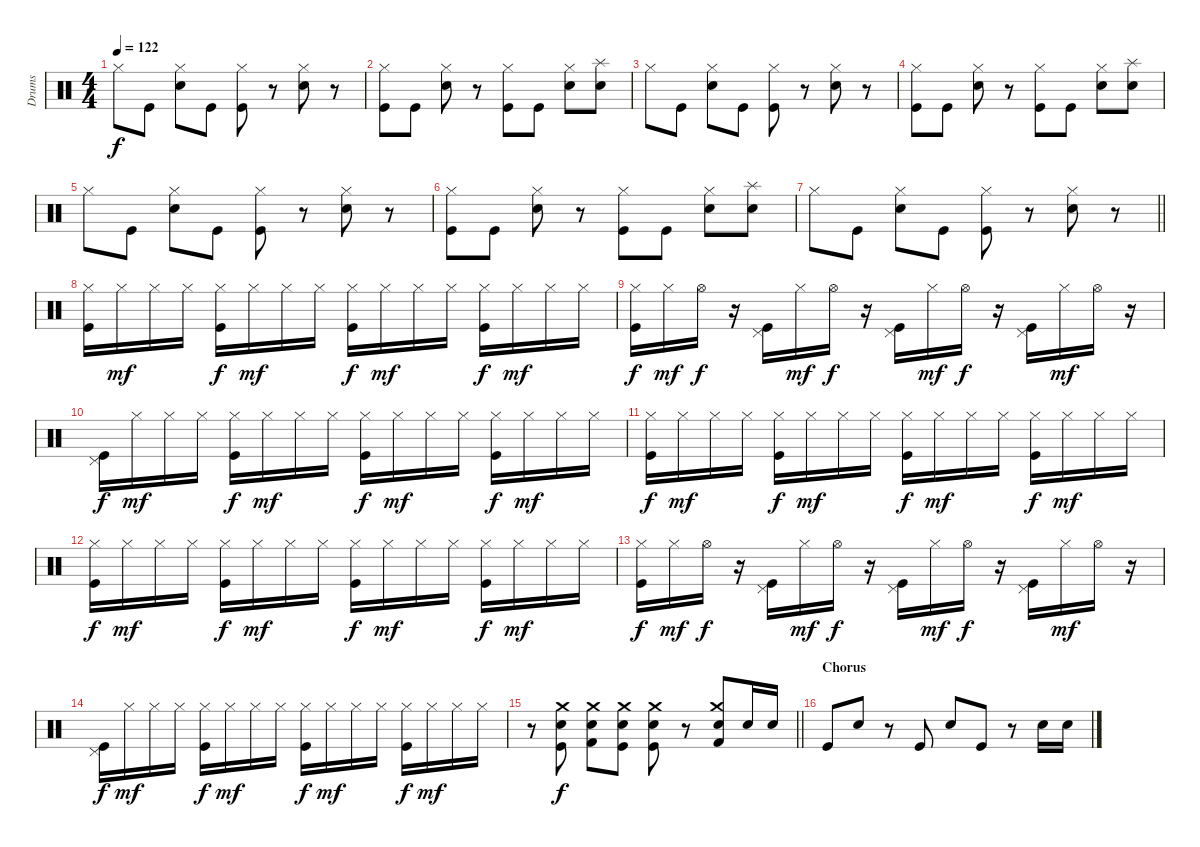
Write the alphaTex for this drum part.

\track ("Drums" "Drums") {instrument percussion}
\staff {score}
\articulation defaults
\ts (4 4)
\tempo 122
\clef neutral
\ks c "Hi-Hat (closed)".8{dy f} "Kick (hit)".8
("Hi-Hat (closed)" "Snare (hit) 2").8 "Kick (hit)".8 ("Hi-Hat (closed)" "Kick (hit)").8 r.8 ("Hi-Hat (closed)" "Snare (hit) 2").8 r.8 |
("Hi-Hat (closed)" "Kick (hit)").8 "Kick (hit)".8 ("Hi-Hat (closed)" "Snare (hit) 2").8 r.8 ("Hi-Hat (closed)" "Kick (hit)").8 "Kick (hit)".8 ("Hi-Hat (closed)" "Hand Clap (hit)").8 ("Splash (hit)" "Electric Snare (hit)").8 |
"Hi-Hat (closed)".8 "Kick (hit)".8 ("Hi-Hat (closed)" "Snare (hit) 2").8 "Kick (hit)".8 ("Hi-Hat (closed)" "Kick (hit)").8 r.8 ("Hi-Hat (closed)" "Snare (hit) 2").8 r.8 |
("Hi-Hat (closed)" "Kick (hit)").8 "Kick (hit)".8 ("Hi-Hat (closed)" "Snare (hit) 2").8 r.8 ("Hi-Hat (closed)" "Kick (hit)").8 "Kick (hit)".8 ("Hi-Hat (closed)" "Hand Clap (hit)").8 ("Splash (hit)" "Electric Snare (hit)").8 |
"Hi-Hat (closed)".8 "Kick (hit)".8 ("Hi-Hat (closed)" "Snare (hit) 2").8 "Kick (hit)".8 ("Hi-Hat (closed)" "Kick (hit)").8 r.8 ("Hi-Hat (closed)" "Snare (hit) 2").8 r.8 |
("Hi-Hat (closed)" "Kick (hit)").8 "Kick (hit)".8 ("Hi-Hat (closed)" "Snare (hit) 2").8 r.8 ("Hi-Hat (closed)" "Kick (hit)").8 "Kick (hit)".8 ("Hi-Hat (closed)" "Hand Clap (hit)").8 ("Splash (hit)" "Electric Snare (hit)").8 |
\barLineRight lightlight "Hi-Hat (closed)".8 "Kick (hit)".8
("Hi-Hat (closed)" "Snare (hit) 2").8 "Kick (hit)".8 ("Hi-Hat (closed)" "Kick (hit)").8 r.8 ("Hi-Hat (closed)" "Snare (hit) 2").8 r.8 |
("Hi-Hat (closed)" "Kick (hit)").16 "Hi-Hat (closed)".16{dy mf} "Hi-Hat (closed)".16 "Hi-Hat (closed)".16 ("Hi-Hat (closed)" "Kick (hit)").16{dy f} "Hi-Hat (closed)".16{dy mf} "Hi-Hat (closed)".16 "Hi-Hat (closed)".16 ("Hi-Hat (closed)" "Kick (hit)").16{dy f} "Hi-Hat (closed)".16{dy mf} "Hi-Hat (closed)".16 "Hi-Hat (closed)".16 ("Hi-Hat (closed)" "Kick (hit)").16{dy f} "Hi-Hat (closed)".16{dy mf} "Hi-Hat (closed)".16 "Hi-Hat (closed)".16 |
("Hi-Hat (closed)" "Kick (hit)").16{dy f} "Hi-Hat (closed)".16{dy mf} "Hi-Hat (open)".16{dy f} r.16 ("Pedal Hi-Hat (hit)" "Kick (hit)").16 "Hi-Hat (closed)".16{dy mf} "Hi-Hat (open)".16{dy f} r.16 ("Pedal Hi-Hat (hit)" "Kick (hit)").16 "Hi-Hat (closed)".16{dy mf} "Hi-Hat (open)".16{dy f} r.16 ("Pedal Hi-Hat (hit)" "Kick (hit)").16 "Hi-Hat (closed)".16{dy mf} "Hi-Hat (open)".16 r.16 |
("Pedal Hi-Hat (hit)" "Kick (hit)").16{dy f} "Hi-Hat (closed)".16{dy mf} "Hi-Hat (closed)".16 "Hi-Hat (closed)".16 ("Hi-Hat (closed)" "Kick (hit)").16{dy f} "Hi-Hat (closed)".16{dy mf} "Hi-Hat (closed)".16 "Hi-Hat (closed)".16 ("Hi-Hat (closed)" "Kick (hit)").16{dy f} "Hi-Hat (closed)".16{dy mf} "Hi-Hat (closed)".16 "Hi-Hat (closed)".16 ("Hi-Hat (closed)" "Kick (hit)").16{dy f} "Hi-Hat (closed)".16{dy mf} "Hi-Hat (closed)".16 "Hi-Hat (closed)".16 |
("Hi-Hat (closed)" "Kick (hit)").16{dy f} "Hi-Hat (closed)".16{dy mf} "Hi-Hat (closed)".16 "Hi-Hat (closed)".16 ("Hi-Hat (closed)" "Kick (hit)").16{dy f} "Hi-Hat (closed)".16{dy mf} "Hi-Hat (closed)".16 "Hi-Hat (closed)".16 ("Hi-Hat (closed)" "Kick (hit)").16{dy f} "Hi-Hat (closed)".16{dy mf} "Hi-Hat (closed)".16 "Hi-Hat (closed)".16 ("Hi-Hat (closed)" "Kick (hit)").16{dy f} "Hi-Hat (closed)".16{dy mf} "Hi-Hat (closed)".16 "Hi-Hat (closed)".16 |
("Hi-Hat (closed)" "Kick (hit)").16{dy f} "Hi-Hat (closed)".16{dy mf} "Hi-Hat (closed)".16 "Hi-Hat (closed)".16 ("Hi-Hat (closed)" "Kick (hit)").16{dy f} "Hi-Hat (closed)".16{dy mf} "Hi-Hat (closed)".16 "Hi-Hat (closed)".16 ("Hi-Hat (closed)" "Kick (hit)").16{dy f} "Hi-Hat (closed)".16{dy mf} "Hi-Hat (closed)".16 "Hi-Hat (closed)".16 ("Hi-Hat (closed)" "Kick (hit)").16{dy f} "Hi-Hat (closed)".16{dy mf} "Hi-Hat (closed)".16 "Hi-Hat (closed)".16 |
("Hi-Hat (closed)" "Kick (hit)").16{dy f} "Hi-Hat (closed)".16{dy mf} "Hi-Hat (open)".16{dy f} r.16 ("Pedal Hi-Hat (hit)" "Kick (hit)").16 "Hi-Hat (closed)".16{dy mf} "Hi-Hat (open)".16{dy f} r.16 ("Pedal Hi-Hat (hit)" "Kick (hit)").16 "Hi-Hat (closed)".16{dy mf} "Hi-Hat (open)".16{dy f} r.16 ("Pedal Hi-Hat (hit)" "Kick (hit)").16 "Hi-Hat (closed)".16{dy mf} "Hi-Hat (open)".16 r.16 |
("Pedal Hi-Hat (hit)" "Kick (hit)").16{dy f} "Hi-Hat (closed)".16{dy mf} "Hi-Hat (closed)".16 "Hi-Hat (closed)".16 ("Hi-Hat (closed)" "Kick (hit)").16{dy f} "Hi-Hat (closed)".16{dy mf} "Hi-Hat (closed)".16 "Hi-Hat (closed)".16 ("Hi-Hat (closed)" "Kick (hit)").16{dy f} "Hi-Hat (closed)".16{dy mf} "Hi-Hat (closed)".16 "Hi-Hat (closed)".16 ("Hi-Hat (closed)" "Kick (hit)").16{dy f} "Hi-Hat (closed)".16{dy mf} "Hi-Hat (closed)".16 "Hi-Hat (closed)".16 |
\barLineRight lightlight
r.8 ("Crash medium (hit)" "Snare (hit) 2" "Kick (hit)").8{dy f} ("Crash medium (hit)" "Snare (hit) 2" "Kick (hit) 2").8 ("Crash medium (hit)" "Snare (hit) 2" "Kick (hit)").8 ("Crash medium (hit)" "Snare (hit) 2" "Kick (hit)").8 r.8 ("Crash medium (hit)" "Snare (hit) 2" "Kick (hit) 2").8 "Snare (hit) 2".16 "Snare (hit) 2".16 |
\section ("" "Chorus")
"Kick (hit)".8 "Snare (hit) 2".8 r.8 "Kick (hit)".8 "Snare (hit) 2".8 "Kick (hit)".8 r.8 "Snare (hit) 2".16 "Snare (hit) 2".16
